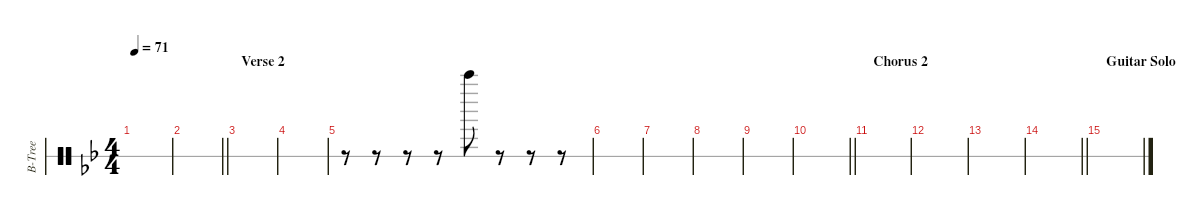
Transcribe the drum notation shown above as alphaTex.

\defaultSystemsLayout 8
\hideDynamics
\bracketExtendMode nobrackets
\otherSystemsTrackNameOrientation horizontal
\track ("Bell Tree" "B-Tree") {defaultSystemsLayout 32 instrument percussion}
\staff {score 1}
\articulation defaults
\ts (4 4)
\tempo 71
\clef neutral
\ks gminor
|
\barLineRight lightlight
|
\section ("" "Verse 2")
|
|
r.8{beam Down} r.8{beam Down} r.8{beam Down} r.8{beam Down} "Bell Tree (hit)"{acc forcenatural}.8{beam Down} r.8{beam Down} r.8{beam Down} r.8{beam Down} |
|
|
|
|
\barLineRight lightlight
|
\section ("" "Chorus 2")
|
|
|
\barLineRight lightlight
|
\section ("" "Guitar Solo")
